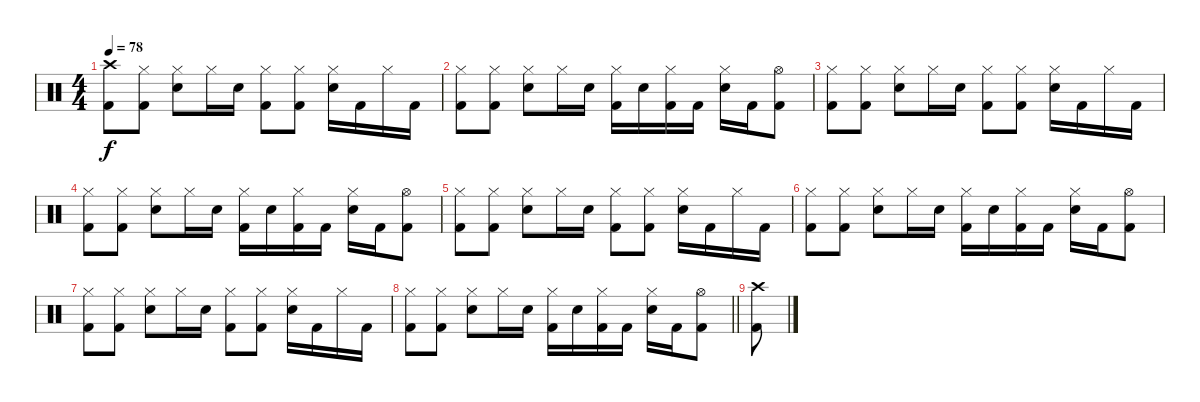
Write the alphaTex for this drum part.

\track "" {instrument percussion}
\staff {score}
\articulation defaults
\ts (4 4)
\section ("" "")
\tempo 78
\clef neutral
\ks c
("Crash high (hit)" "Kick (hit) 2").8{dy f} ("Hi-Hat (closed)" "Kick (hit) 2").8 ("Hi-Hat (closed)" "Snare (hit) 2").8 "Hi-Hat (closed)".16 "Snare (hit) 2".16 ("Hi-Hat (closed)" "Kick (hit) 2").8 ("Hi-Hat (closed)" "Kick (hit) 2").8 ("Hi-Hat (closed)" "Snare (hit) 2").16 "Kick (hit) 2".16 "Hi-Hat (closed)".16 "Kick (hit) 2".16 |
("Hi-Hat (closed)" "Kick (hit) 2").8 ("Hi-Hat (closed)" "Kick (hit) 2").8 ("Hi-Hat (closed)" "Snare (hit) 2").8 "Hi-Hat (closed)".16 "Snare (hit) 2".16 ("Hi-Hat (closed)" "Kick (hit) 2").16 "Snare (hit) 2".16 ("Hi-Hat (closed)" "Kick (hit) 2").16 "Kick (hit) 2".16 ("Hi-Hat (closed)" "Snare (hit) 2").16 "Kick (hit) 2".16 ("Hi-Hat (open)" "Kick (hit) 2").8 |
("Hi-Hat (closed)" "Kick (hit) 2").8 ("Hi-Hat (closed)" "Kick (hit) 2").8 ("Hi-Hat (closed)" "Snare (hit) 2").8 "Hi-Hat (closed)".16 "Snare (hit) 2".16 ("Hi-Hat (closed)" "Kick (hit) 2").8 ("Hi-Hat (closed)" "Kick (hit) 2").8 ("Hi-Hat (closed)" "Snare (hit) 2").16 "Kick (hit) 2".16 "Hi-Hat (closed)".16 "Kick (hit) 2".16 |
("Hi-Hat (closed)" "Kick (hit) 2").8 ("Hi-Hat (closed)" "Kick (hit) 2").8 ("Hi-Hat (closed)" "Snare (hit) 2").8 "Hi-Hat (closed)".16 "Snare (hit) 2".16 ("Hi-Hat (closed)" "Kick (hit) 2").16 "Snare (hit) 2".16 ("Hi-Hat (closed)" "Kick (hit) 2").16 "Kick (hit) 2".16 ("Hi-Hat (closed)" "Snare (hit) 2").16 "Kick (hit) 2".16 ("Hi-Hat (open)" "Kick (hit) 2").8 |
("Hi-Hat (closed)" "Kick (hit) 2").8 ("Hi-Hat (closed)" "Kick (hit) 2").8 ("Hi-Hat (closed)" "Snare (hit) 2").8 "Hi-Hat (closed)".16 "Snare (hit) 2".16 ("Hi-Hat (closed)" "Kick (hit) 2").8 ("Hi-Hat (closed)" "Kick (hit) 2").8 ("Hi-Hat (closed)" "Snare (hit) 2").16 "Kick (hit) 2".16 "Hi-Hat (closed)".16 "Kick (hit) 2".16 |
("Hi-Hat (closed)" "Kick (hit) 2").8 ("Hi-Hat (closed)" "Kick (hit) 2").8 ("Hi-Hat (closed)" "Snare (hit) 2").8 "Hi-Hat (closed)".16 "Snare (hit) 2".16 ("Hi-Hat (closed)" "Kick (hit) 2").16 "Snare (hit) 2".16 ("Hi-Hat (closed)" "Kick (hit) 2").16 "Kick (hit) 2".16 ("Hi-Hat (closed)" "Snare (hit) 2").16 "Kick (hit) 2".16 ("Hi-Hat (open)" "Kick (hit) 2").8 |
("Hi-Hat (closed)" "Kick (hit) 2").8 ("Hi-Hat (closed)" "Kick (hit) 2").8 ("Hi-Hat (closed)" "Snare (hit) 2").8 "Hi-Hat (closed)".16 "Snare (hit) 2".16 ("Hi-Hat (closed)" "Kick (hit) 2").8 ("Hi-Hat (closed)" "Kick (hit) 2").8 ("Hi-Hat (closed)" "Snare (hit) 2").16 "Kick (hit) 2".16 "Hi-Hat (closed)".16 "Kick (hit) 2".16 |
\barLineRight lightlight
("Hi-Hat (closed)" "Kick (hit) 2").8 ("Hi-Hat (closed)" "Kick (hit) 2").8 ("Hi-Hat (closed)" "Snare (hit) 2").8{txt ""} "Hi-Hat (closed)".16 "Snare (hit) 2".16 ("Hi-Hat (closed)" "Kick (hit) 2").16 "Snare (hit) 2".16 ("Hi-Hat (closed)" "Kick (hit) 2").16 "Kick (hit) 2".16 ("Hi-Hat (closed)" "Snare (hit) 2").16 "Kick (hit) 2".16 ("Hi-Hat (open)" "Kick (hit) 2").8 |
("Crash high (hit)" "Kick (hit) 2").8
